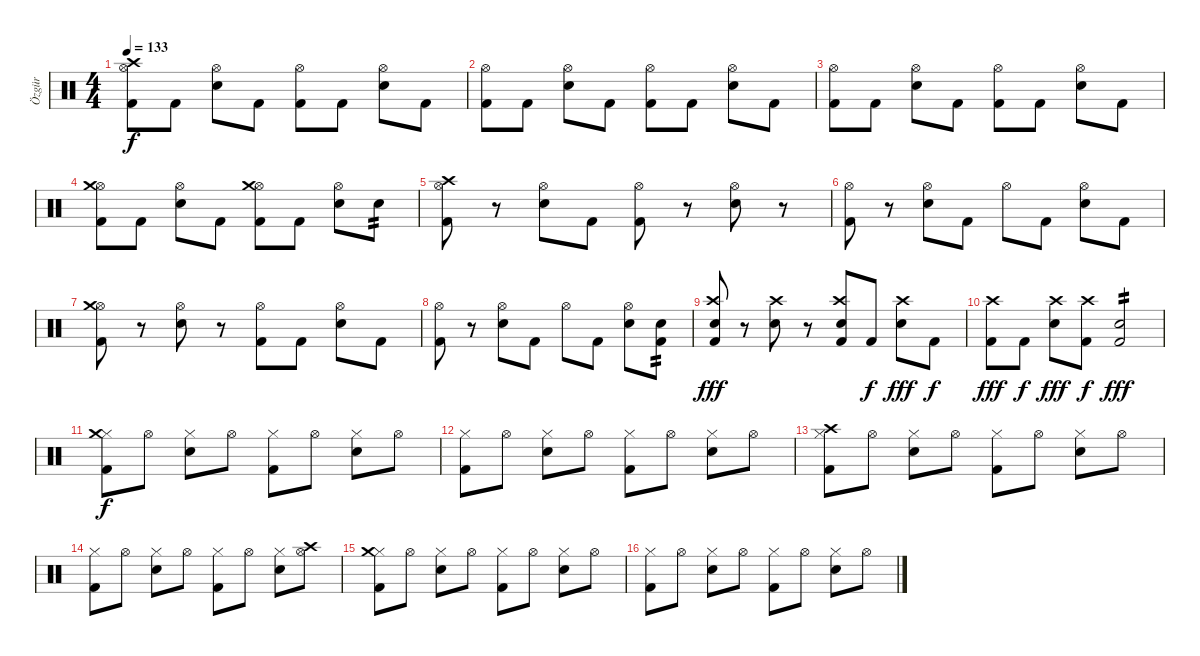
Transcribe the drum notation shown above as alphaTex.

\track ("Özgür" "Özgür") {instrument percussion}
\staff {score}
\articulation defaults
\ts (4 4)
\tempo 133
\clef neutral
\ks c
("Kick (hit) 2" "Hi-Hat (open)" "Crash high (hit)").8{dy f} "Kick (hit) 2".8 ("Snare (hit) 2" "Hi-Hat (open)").8 "Kick (hit) 2".8 ("Kick (hit) 2" "Hi-Hat (open)").8 "Kick (hit) 2".8 ("Snare (hit) 2" "Hi-Hat (open)").8 "Kick (hit) 2".8 |
("Kick (hit) 2" "Hi-Hat (open)").8 "Kick (hit) 2".8 ("Snare (hit) 2" "Hi-Hat (open)").8 "Kick (hit) 2".8 ("Kick (hit) 2" "Hi-Hat (open)").8 "Kick (hit) 2".8 ("Snare (hit) 2" "Hi-Hat (open)").8 "Kick (hit) 2".8 |
("Kick (hit) 2" "Hi-Hat (open)").8 "Kick (hit) 2".8 ("Snare (hit) 2" "Hi-Hat (open)").8 "Kick (hit) 2".8 ("Kick (hit) 2" "Hi-Hat (open)").8 "Kick (hit) 2".8 ("Snare (hit) 2" "Hi-Hat (open)").8 "Kick (hit) 2".8 |
("Kick (hit) 2" "Hi-Hat (open)" "Crash medium (hit)").8 "Kick (hit) 2".8 ("Snare (hit) 2" "Hi-Hat (open)").8 "Kick (hit) 2".8 ("Kick (hit) 2" "Hi-Hat (open)" "Crash medium (hit)").8 "Kick (hit) 2".8 ("Snare (hit) 2" "Hi-Hat (open)").8 "Snare (hit) 2".8{tp 2} |
("Kick (hit) 2" "Hi-Hat (open)" "Crash high (hit)").8 r.8 ("Snare (hit) 2" "Hi-Hat (open)").8 "Kick (hit) 2".8 ("Kick (hit) 2" "Hi-Hat (open)").8 r.8 ("Snare (hit) 2" "Hi-Hat (open)").8 r.8 |
("Kick (hit) 2" "Hi-Hat (open)").8 r.8 ("Snare (hit) 2" "Hi-Hat (open)").8 "Kick (hit) 2".8 "Hi-Hat (open)".8 "Kick (hit) 2".8 ("Snare (hit) 2" "Hi-Hat (open)").8 "Kick (hit) 2".8 |
("Kick (hit) 2" "Hi-Hat (open)" "Crash medium (hit)").8 r.8 ("Snare (hit) 2" "Hi-Hat (open)").8 r.8 ("Kick (hit) 2" "Hi-Hat (open)").8 "Kick (hit) 2".8 ("Snare (hit) 2" "Hi-Hat (open)").8 "Kick (hit) 2".8 |
("Kick (hit) 2" "Hi-Hat (open)").8 r.8 ("Snare (hit) 2" "Hi-Hat (open)").8 "Kick (hit) 2".8 "Hi-Hat (open)".8 "Kick (hit) 2".8 ("Snare (hit) 2" "Hi-Hat (open)").8 ("Kick (hit) 2" "Snare (hit) 2").8{tp 2} |
("Kick (hit) 2" "Snare (hit) 2" "Crash high (hit)").8{dy fff} r.8 ("Snare (hit) 2" "Crash high (hit)").8 r.8 ("Kick (hit) 2" "Snare (hit) 2" "Crash high (hit)").8 "Kick (hit) 2".8{dy f} ("Snare (hit) 2" "Crash high (hit)").8{dy fff} "Kick (hit) 2".8{dy f} |
("Kick (hit) 2" "Crash high (hit)").8{dy fff} "Kick (hit) 2".8{dy f} ("Snare (hit) 2" "Crash high (hit)").8{dy fff} ("Kick (hit) 2" "Crash high (hit)").8{dy f} ("Kick (hit) 2" "Electric Snare (hit)").2{tp 2 dy fff} |
("Kick (hit) 2" "Hi-Hat (closed)" "Crash medium (hit)").8{dy f} "Hi-Hat (open)".8 ("Snare (hit) 2" "Hi-Hat (closed)").8 "Hi-Hat (open)".8 ("Kick (hit) 2" "Hi-Hat (closed)").8 "Hi-Hat (open)".8 ("Snare (hit) 2" "Hi-Hat (closed)").8 "Hi-Hat (open)".8 |
("Kick (hit) 2" "Hi-Hat (closed)").8 "Hi-Hat (open)".8 ("Snare (hit) 2" "Hi-Hat (closed)").8 "Hi-Hat (open)".8 ("Kick (hit) 2" "Hi-Hat (closed)").8 "Hi-Hat (open)".8 ("Snare (hit) 2" "Hi-Hat (closed)").8 "Hi-Hat (open)".8 |
("Kick (hit) 2" "Hi-Hat (closed)" "Crash high (hit)").8 "Hi-Hat (open)".8 ("Snare (hit) 2" "Hi-Hat (closed)").8 "Hi-Hat (open)".8 ("Kick (hit) 2" "Hi-Hat (closed)").8 "Hi-Hat (open)".8 ("Snare (hit) 2" "Hi-Hat (closed)").8 "Hi-Hat (open)".8 |
("Kick (hit) 2" "Hi-Hat (closed)").8 "Hi-Hat (open)".8 ("Snare (hit) 2" "Hi-Hat (closed)").8 "Hi-Hat (open)".8 ("Kick (hit) 2" "Hi-Hat (closed)").8 "Hi-Hat (open)".8 ("Snare (hit) 2" "Hi-Hat (closed)").8 ("Hi-Hat (open)" "Crash high (hit)").8 |
("Kick (hit) 2" "Hi-Hat (closed)" "Crash medium (hit)").8 "Hi-Hat (open)".8 ("Snare (hit) 2" "Hi-Hat (closed)").8 "Hi-Hat (open)".8 ("Kick (hit) 2" "Hi-Hat (closed)").8 "Hi-Hat (open)".8 ("Snare (hit) 2" "Hi-Hat (closed)").8 "Hi-Hat (open)".8 |
("Kick (hit) 2" "Hi-Hat (closed)").8 "Hi-Hat (open)".8 ("Snare (hit) 2" "Hi-Hat (closed)").8 "Hi-Hat (open)".8 ("Kick (hit) 2" "Hi-Hat (closed)").8 "Hi-Hat (open)".8 ("Snare (hit) 2" "Hi-Hat (closed)").8 "Hi-Hat (open)".8
